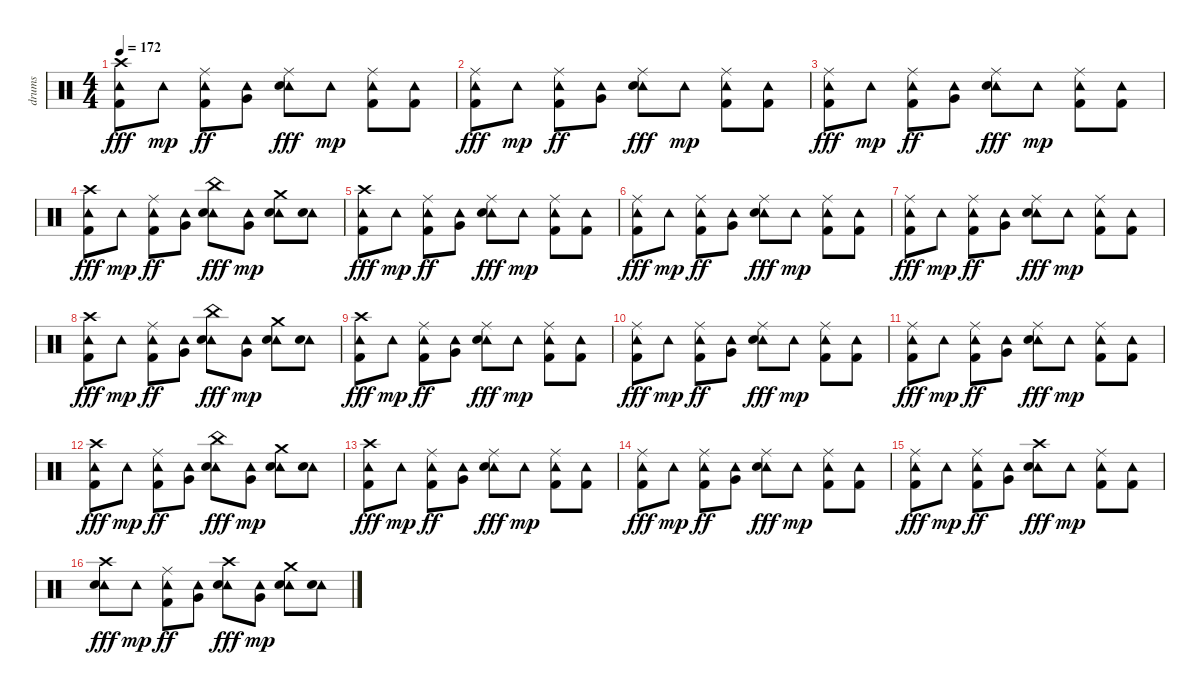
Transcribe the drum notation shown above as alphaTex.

\track ("drums" "drums") {instrument percussion}
\staff {score}
\articulation defaults
\ts (4 4)
\tempo 172
\clef neutral
\ks c
("Crash high (hit)" "Tambourine (hit)" "Kick (hit) 2").8{dy fff} "Tambourine (hit)".8{dy mp} ("Ride (middle)" "Tambourine (hit)" "Kick (hit) 2").8{dy ff} ("Tambourine (hit)" "Very Low Tom (hit)").8 ("Ride (middle)" "Tambourine (hit)" "Electric Snare (hit)").8{dy fff} "Tambourine (hit)".8{dy mp} ("Ride (middle)" "Tambourine (hit)" "Kick (hit) 2").8 ("Tambourine (hit)" "Kick (hit) 2").8 |
("Ride (middle)" "Tambourine (hit)" "Kick (hit) 2").8{dy fff} "Tambourine (hit)".8{dy mp} ("Ride (middle)" "Tambourine (hit)" "Kick (hit) 2").8{dy ff} ("Tambourine (hit)" "Very Low Tom (hit)").8 ("Ride (middle)" "Tambourine (hit)" "Electric Snare (hit)").8{dy fff} "Tambourine (hit)".8{dy mp} ("Ride (middle)" "Tambourine (hit)" "Kick (hit) 2").8 ("Tambourine (hit)" "Kick (hit) 2").8 |
("Ride (middle)" "Tambourine (hit)" "Kick (hit) 2").8{dy fff} "Tambourine (hit)".8{dy mp} ("Ride (middle)" "Tambourine (hit)" "Kick (hit) 2").8{dy ff} ("Tambourine (hit)" "Very Low Tom (hit)").8 ("Ride (middle)" "Tambourine (hit)" "Electric Snare (hit)").8{dy fff} "Tambourine (hit)".8{dy mp} ("Ride (middle)" "Tambourine (hit)" "Kick (hit) 2").8 ("Tambourine (hit)" "Kick (hit) 2").8 |
("Crash high (hit)" "Tambourine (hit)" "Kick (hit) 2").8{dy fff} "Tambourine (hit)".8{dy mp} ("Ride (middle)" "Tambourine (hit)" "Kick (hit) 2").8{dy ff} ("Tambourine (hit)" "Very Low Tom (hit)").8 ("China (hit)" "Tambourine (hit)" "Electric Snare (hit)").8{dy fff} ("Tambourine (hit)" "Very Low Tom (hit)").8{dy mp} ("Crash medium (hit)" "Tambourine (hit)" "Electric Snare (hit)").8 ("Tambourine (hit)" "Electric Snare (hit)").8 |
("Crash high (hit)" "Tambourine (hit)" "Kick (hit) 2").8{dy fff} "Tambourine (hit)".8{dy mp} ("Ride (middle)" "Tambourine (hit)" "Kick (hit) 2").8{dy ff} ("Tambourine (hit)" "Very Low Tom (hit)").8 ("Ride (middle)" "Tambourine (hit)" "Electric Snare (hit)").8{dy fff} "Tambourine (hit)".8{dy mp} ("Ride (middle)" "Tambourine (hit)" "Kick (hit) 2").8 ("Tambourine (hit)" "Kick (hit) 2").8 |
("Ride (middle)" "Tambourine (hit)" "Kick (hit) 2").8{dy fff} "Tambourine (hit)".8{dy mp} ("Ride (middle)" "Tambourine (hit)" "Kick (hit) 2").8{dy ff} ("Tambourine (hit)" "Very Low Tom (hit)").8 ("Ride (middle)" "Tambourine (hit)" "Electric Snare (hit)").8{dy fff} "Tambourine (hit)".8{dy mp} ("Ride (middle)" "Tambourine (hit)" "Kick (hit) 2").8 ("Tambourine (hit)" "Kick (hit) 2").8 |
("Ride (middle)" "Tambourine (hit)" "Kick (hit) 2").8{dy fff} "Tambourine (hit)".8{dy mp} ("Ride (middle)" "Tambourine (hit)" "Kick (hit) 2").8{dy ff} ("Tambourine (hit)" "Very Low Tom (hit)").8 ("Ride (middle)" "Tambourine (hit)" "Electric Snare (hit)").8{dy fff} "Tambourine (hit)".8{dy mp} ("Ride (middle)" "Tambourine (hit)" "Kick (hit) 2").8 ("Tambourine (hit)" "Kick (hit) 2").8 |
("Crash high (hit)" "Tambourine (hit)" "Kick (hit) 2").8{dy fff} "Tambourine (hit)".8{dy mp} ("Ride (middle)" "Tambourine (hit)" "Kick (hit) 2").8{dy ff} ("Tambourine (hit)" "Very Low Tom (hit)").8 ("China (hit)" "Tambourine (hit)" "Electric Snare (hit)").8{dy fff} ("Tambourine (hit)" "Very Low Tom (hit)").8{dy mp} ("Crash medium (hit)" "Tambourine (hit)" "Electric Snare (hit)").8 ("Tambourine (hit)" "Electric Snare (hit)").8 |
("Crash high (hit)" "Tambourine (hit)" "Kick (hit) 2").8{dy fff} "Tambourine (hit)".8{dy mp} ("Ride (middle)" "Tambourine (hit)" "Kick (hit) 2").8{dy ff} ("Tambourine (hit)" "Very Low Tom (hit)").8 ("Ride (middle)" "Tambourine (hit)" "Electric Snare (hit)").8{dy fff} "Tambourine (hit)".8{dy mp} ("Ride (middle)" "Tambourine (hit)" "Kick (hit) 2").8 ("Tambourine (hit)" "Kick (hit) 2").8 |
("Ride (middle)" "Tambourine (hit)" "Kick (hit) 2").8{dy fff} "Tambourine (hit)".8{dy mp} ("Ride (middle)" "Tambourine (hit)" "Kick (hit) 2").8{dy ff} ("Tambourine (hit)" "Very Low Tom (hit)").8 ("Ride (middle)" "Tambourine (hit)" "Electric Snare (hit)").8{dy fff} "Tambourine (hit)".8{dy mp} ("Ride (middle)" "Tambourine (hit)" "Kick (hit) 2").8 ("Tambourine (hit)" "Kick (hit) 2").8 |
("Ride (middle)" "Tambourine (hit)" "Kick (hit) 2").8{dy fff} "Tambourine (hit)".8{dy mp} ("Ride (middle)" "Tambourine (hit)" "Kick (hit) 2").8{dy ff} ("Tambourine (hit)" "Very Low Tom (hit)").8 ("Ride (middle)" "Tambourine (hit)" "Electric Snare (hit)").8{dy fff} "Tambourine (hit)".8{dy mp} ("Ride (middle)" "Tambourine (hit)" "Kick (hit) 2").8 ("Tambourine (hit)" "Kick (hit) 2").8 |
("Crash high (hit)" "Tambourine (hit)" "Kick (hit) 2").8{dy fff} "Tambourine (hit)".8{dy mp} ("Ride (middle)" "Tambourine (hit)" "Kick (hit) 2").8{dy ff} ("Tambourine (hit)" "Very Low Tom (hit)").8 ("China (hit)" "Tambourine (hit)" "Electric Snare (hit)").8{dy fff} ("Tambourine (hit)" "Very Low Tom (hit)").8{dy mp} ("Crash medium (hit)" "Tambourine (hit)" "Electric Snare (hit)").8 ("Tambourine (hit)" "Electric Snare (hit)").8 |
("Crash high (hit)" "Tambourine (hit)" "Kick (hit) 2").8{dy fff} "Tambourine (hit)".8{dy mp} ("Ride (middle)" "Tambourine (hit)" "Kick (hit) 2").8{dy ff} ("Tambourine (hit)" "Very Low Tom (hit)").8 ("Ride (middle)" "Tambourine (hit)" "Electric Snare (hit)").8{dy fff} "Tambourine (hit)".8{dy mp} ("Ride (middle)" "Tambourine (hit)" "Kick (hit) 2").8 ("Tambourine (hit)" "Kick (hit) 2").8 |
("Ride (middle)" "Tambourine (hit)" "Kick (hit) 2").8{dy fff} "Tambourine (hit)".8{dy mp} ("Ride (middle)" "Tambourine (hit)" "Kick (hit) 2").8{dy ff} ("Tambourine (hit)" "Very Low Tom (hit)").8 ("Ride (middle)" "Tambourine (hit)" "Electric Snare (hit)").8{dy fff} "Tambourine (hit)".8{dy mp} ("Ride (middle)" "Tambourine (hit)" "Kick (hit) 2").8 ("Tambourine (hit)" "Kick (hit) 2").8 |
("Ride (middle)" "Tambourine (hit)" "Kick (hit) 2").8{dy fff} "Tambourine (hit)".8{dy mp} ("Ride (middle)" "Tambourine (hit)" "Kick (hit) 2").8{dy ff} ("Tambourine (hit)" "Very Low Tom (hit)").8 ("Crash high (hit)" "Tambourine (hit)" "Electric Snare (hit)").8{dy fff} "Tambourine (hit)".8{dy mp} ("Ride (middle)" "Tambourine (hit)" "Kick (hit) 2").8 ("Tambourine (hit)" "Kick (hit) 2").8 |
("Crash high (hit)" "Tambourine (hit)" "Electric Snare (hit)").8{dy fff} "Tambourine (hit)".8{dy mp} ("Ride (middle)" "Tambourine (hit)" "Kick (hit) 2").8{dy ff} ("Tambourine (hit)" "Very Low Tom (hit)").8 ("Crash high (hit)" "Tambourine (hit)" "Electric Snare (hit)").8{dy fff} ("Tambourine (hit)" "Very Low Tom (hit)").8{dy mp} ("Crash medium (hit)" "Tambourine (hit)" "Electric Snare (hit)").8 ("Tambourine (hit)" "Electric Snare (hit)").8
